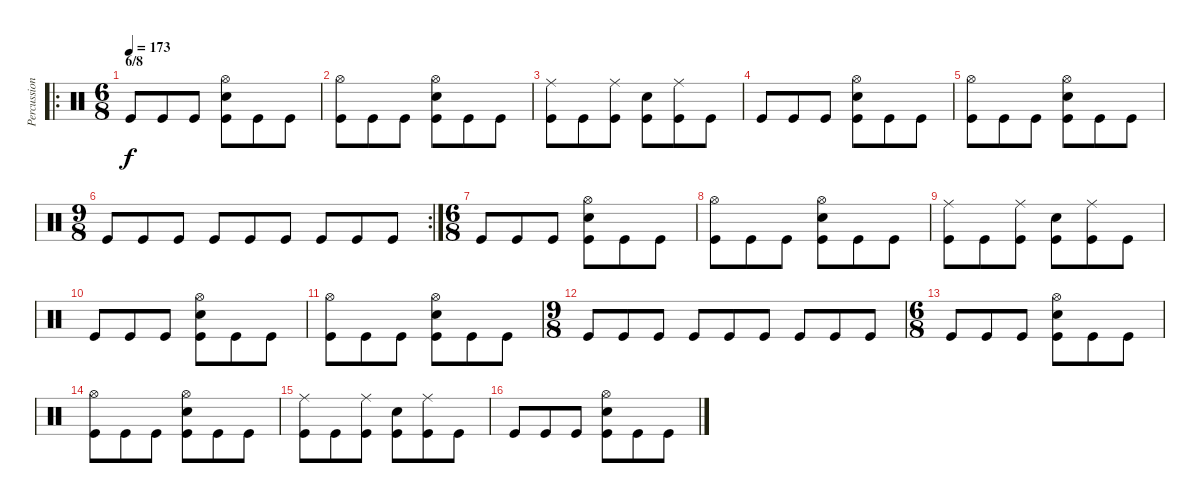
\track ("Percussion" "Percussion") {instrument percussion}
\staff {score}
\articulation defaults
\ro
\ts (6 8)
\section ("" "6/8")
\tempo 173
\tempo 258
\tempo 173
\clef neutral
\ks c "Kick (hit)".8{dy f} "Kick (hit)".8 "Kick (hit)".8
("Snare (hit) 2" "Hi-Hat (open)" "Kick (hit)").8 "Kick (hit)".8 "Kick (hit)".8 |
("Hi-Hat (open)" "Kick (hit)").8 "Kick (hit)".8 "Kick (hit)".8 ("Snare (hit) 2" "Hi-Hat (open)" "Kick (hit)").8 "Kick (hit)".8 "Kick (hit)".8 |
("Ride (middle)" "Kick (hit)").8 "Kick (hit)".8 ("Ride (middle)" "Kick (hit)").8 ("Snare (hit) 2" "Kick (hit)").8 ("Ride (middle)" "Kick (hit)").8 "Kick (hit)".8 |
"Kick (hit)".8 "Kick (hit)".8 "Kick (hit)".8 ("Snare (hit) 2" "Hi-Hat (open)" "Kick (hit)").8 "Kick (hit)".8 "Kick (hit)".8 |
("Hi-Hat (open)" "Kick (hit)").8 "Kick (hit)".8 "Kick (hit)".8 ("Snare (hit) 2" "Hi-Hat (open)" "Kick (hit)").8 "Kick (hit)".8 "Kick (hit)".8 |
\rc 2
\ts (9 8)
"Kick (hit)".8 "Kick (hit)".8 "Kick (hit)".8 "Kick (hit)".8 "Kick (hit)".8 "Kick (hit)".8 "Kick (hit)".8 "Kick (hit)".8 "Kick (hit)".8 |
\ts (6 8)
"Kick (hit)".8 "Kick (hit)".8 "Kick (hit)".8 ("Snare (hit) 2" "Hi-Hat (open)" "Kick (hit)").8 "Kick (hit)".8 "Kick (hit)".8 |
("Hi-Hat (open)" "Kick (hit)").8 "Kick (hit)".8 "Kick (hit)".8 ("Snare (hit) 2" "Hi-Hat (open)" "Kick (hit)").8 "Kick (hit)".8 "Kick (hit)".8 |
("Ride (middle)" "Kick (hit)").8 "Kick (hit)".8 ("Ride (middle)" "Kick (hit)").8 ("Snare (hit) 2" "Kick (hit)").8 ("Ride (middle)" "Kick (hit)").8 "Kick (hit)".8 |
"Kick (hit)".8 "Kick (hit)".8 "Kick (hit)".8 ("Snare (hit) 2" "Hi-Hat (open)" "Kick (hit)").8 "Kick (hit)".8 "Kick (hit)".8 |
("Hi-Hat (open)" "Kick (hit)").8 "Kick (hit)".8 "Kick (hit)".8 ("Snare (hit) 2" "Hi-Hat (open)" "Kick (hit)").8 "Kick (hit)".8 "Kick (hit)".8 |
\ts (9 8)
"Kick (hit)".8 "Kick (hit)".8 "Kick (hit)".8 "Kick (hit)".8 "Kick (hit)".8 "Kick (hit)".8 "Kick (hit)".8 "Kick (hit)".8 "Kick (hit)".8 |
\ts (6 8)
"Kick (hit)".8 "Kick (hit)".8 "Kick (hit)".8 ("Snare (hit) 2" "Hi-Hat (open)" "Kick (hit)").8 "Kick (hit)".8 "Kick (hit)".8 |
("Hi-Hat (open)" "Kick (hit)").8 "Kick (hit)".8 "Kick (hit)".8 ("Snare (hit) 2" "Hi-Hat (open)" "Kick (hit)").8 "Kick (hit)".8 "Kick (hit)".8 |
("Ride (middle)" "Kick (hit)").8 "Kick (hit)".8 ("Ride (middle)" "Kick (hit)").8 ("Snare (hit) 2" "Kick (hit)").8 ("Ride (middle)" "Kick (hit)").8 "Kick (hit)".8 |
"Kick (hit)".8 "Kick (hit)".8 "Kick (hit)".8 ("Snare (hit) 2" "Hi-Hat (open)" "Kick (hit)").8 "Kick (hit)".8 "Kick (hit)".8
